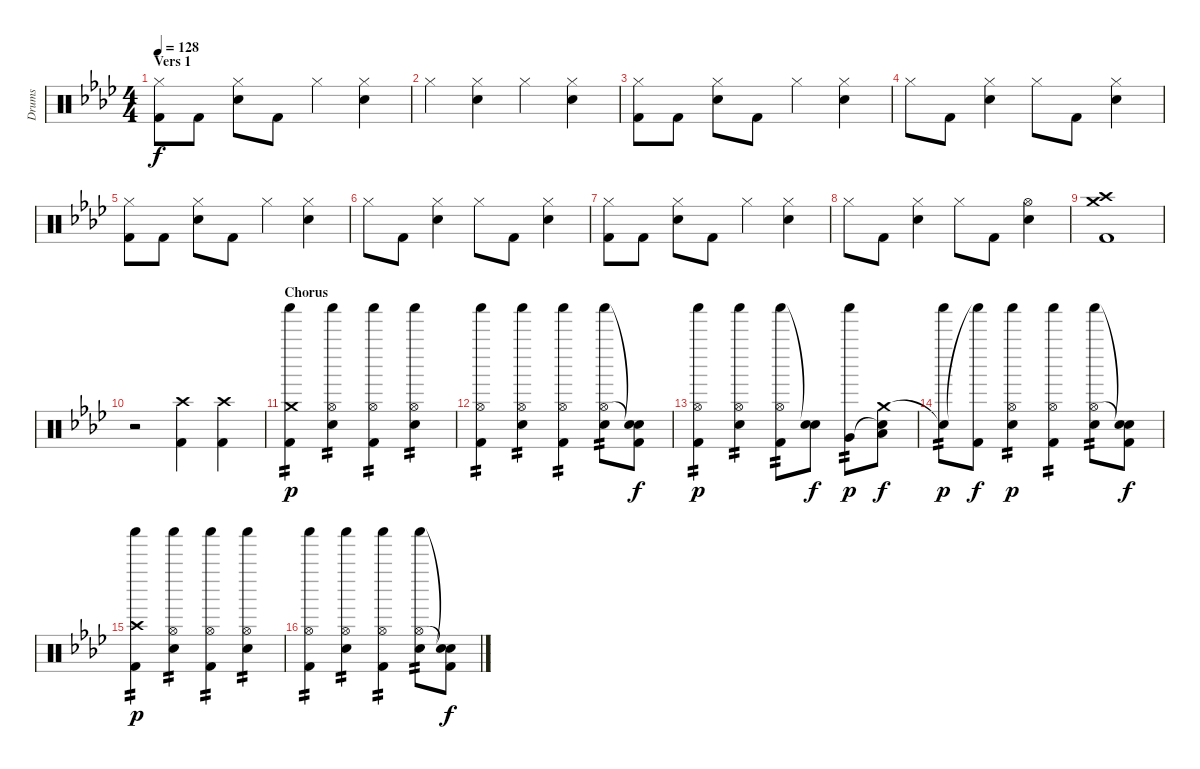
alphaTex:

\track ("Drums" "Drums") {instrument percussion}
\staff {score}
\articulation defaults
\ts (4 4)
\section ("" "Vers 1")
\tempo 128
\clef neutral
\ks fminor
("Hi-Hat (closed)" "Kick (hit) 2").8{dy f} "Kick (hit) 2".8 ("Hi-Hat (closed)" "Electric Snare (hit)").8 "Kick (hit) 2".8 "Hi-Hat (closed)".4 ("Hi-Hat (closed)" "Electric Snare (hit)").4 |
"Hi-Hat (closed)".4 ("Hi-Hat (closed)" "Electric Snare (hit)").4 "Hi-Hat (closed)".4 ("Hi-Hat (closed)" "Electric Snare (hit)").4 |
("Hi-Hat (closed)" "Kick (hit) 2").8 "Kick (hit) 2".8 ("Hi-Hat (closed)" "Electric Snare (hit)").8 "Kick (hit) 2".8 "Hi-Hat (closed)".4 ("Hi-Hat (closed)" "Electric Snare (hit)").4 |
"Hi-Hat (closed)".8 "Kick (hit) 2".8 ("Hi-Hat (closed)" "Electric Snare (hit)").4 "Hi-Hat (closed)".8 "Kick (hit) 2".8 ("Hi-Hat (closed)" "Electric Snare (hit)").4 |
("Hi-Hat (closed)" "Kick (hit) 2").8 "Kick (hit) 2".8 ("Hi-Hat (closed)" "Electric Snare (hit)").8 "Kick (hit) 2".8 "Hi-Hat (closed)".4 ("Hi-Hat (closed)" "Electric Snare (hit)").4 |
"Hi-Hat (closed)".8 "Kick (hit) 2".8 ("Hi-Hat (closed)" "Electric Snare (hit)").4 "Hi-Hat (closed)".8 "Kick (hit) 2".8 ("Hi-Hat (closed)" "Electric Snare (hit)").4 |
("Hi-Hat (closed)" "Kick (hit) 2").8 "Kick (hit) 2".8 ("Hi-Hat (closed)" "Electric Snare (hit)").8 "Kick (hit) 2".8 "Hi-Hat (closed)".4 ("Hi-Hat (closed)" "Electric Snare (hit)").4 |
"Hi-Hat (closed)".8 "Kick (hit) 2".8 ("Hi-Hat (closed)" "Electric Snare (hit)").4 "Hi-Hat (closed)".8 "Kick (hit) 2".8 ("Hi-Hat (open)" "Electric Snare (hit)").4 |
("Crash medium (hit)" "Crash high (hit)" "Kick (hit) 2").1 |
r.2 ("Crash high (hit)" "Kick (hit) 2").4 ("Crash high (hit)" "Kick (hit) 2").4 |
\section ("" "Chorus")
("Crash medium (hit)" "Shaker (hit)" "Kick (hit) 2").4{tp 2 dy p} ("Shaker (hit)" "Hi-Hat (open)" "Electric Snare (hit)").4{tp 2} ("Shaker (hit)" "Hi-Hat (open)" "Kick (hit) 2").4{tp 2} ("Shaker (hit)" "Hi-Hat (open)" "Electric Snare (hit)").4{tp 2} |
("Shaker (hit)" "Hi-Hat (open)" "Kick (hit) 2").4{tp 2} ("Shaker (hit)" "Hi-Hat (open)" "Electric Snare (hit)").4{tp 2} ("Shaker (hit)" "Hi-Hat (open)" "Kick (hit) 2").4{tp 2} ("Shaker (hit)" "Hi-Hat (open)" "Electric Snare (hit)").8{tp 2} ("Snare (hit)"{t} "Snare (hit)"{t} "Kick (hit) 2").8{dy f} |
("Shaker (hit)" "Hi-Hat (open)" "Kick (hit) 2").4{tp 2 dy p} ("Shaker (hit)" "Hi-Hat (open)" "Electric Snare (hit)").4{tp 2} ("Shaker (hit)" "Hi-Hat (open)" "Kick (hit) 2").8{tp 2} ("Snare (hit)"{t} "Electric Snare (hit)").8{dy f} ("Shaker (hit)" "Very Low Tom (hit)").8{tp 2 dy p} ("Crash medium (hit)" "Snare (hit)"{t} "Low Floor Tom (hit)").8{dy f} |
("Snare (hit)"{t} "Shaker (hit)").8{tp 2 dy p} ("Shaker (hit)"{t} "Kick (hit) 2").8{dy f} ("Shaker (hit)" "Hi-Hat (open)" "Electric Snare (hit)").4{tp 2 dy p} ("Shaker (hit)" "Hi-Hat (open)" "Kick (hit) 2").4{tp 2} ("Shaker (hit)" "Hi-Hat (open)" "Electric Snare (hit)").8{tp 2} ("Snare (hit)"{t} "Snare (hit)"{t} "Kick (hit) 2").8{dy f} |
("Crash high (hit)" "Shaker (hit)" "Kick (hit) 2").4{tp 2 dy p} ("Shaker (hit)" "Hi-Hat (open)" "Electric Snare (hit)").4{tp 2} ("Shaker (hit)" "Hi-Hat (open)" "Kick (hit) 2").4{tp 2} ("Shaker (hit)" "Hi-Hat (open)" "Electric Snare (hit)").4{tp 2} |
("Shaker (hit)" "Hi-Hat (open)" "Kick (hit) 2").4{tp 2} ("Shaker (hit)" "Hi-Hat (open)" "Electric Snare (hit)").4{tp 2} ("Shaker (hit)" "Hi-Hat (open)" "Kick (hit) 2").4{tp 2} ("Shaker (hit)" "Hi-Hat (open)" "Electric Snare (hit)").8{tp 2} ("Snare (hit)"{t} "Snare (hit)"{t} "Kick (hit) 2").8{dy f}
